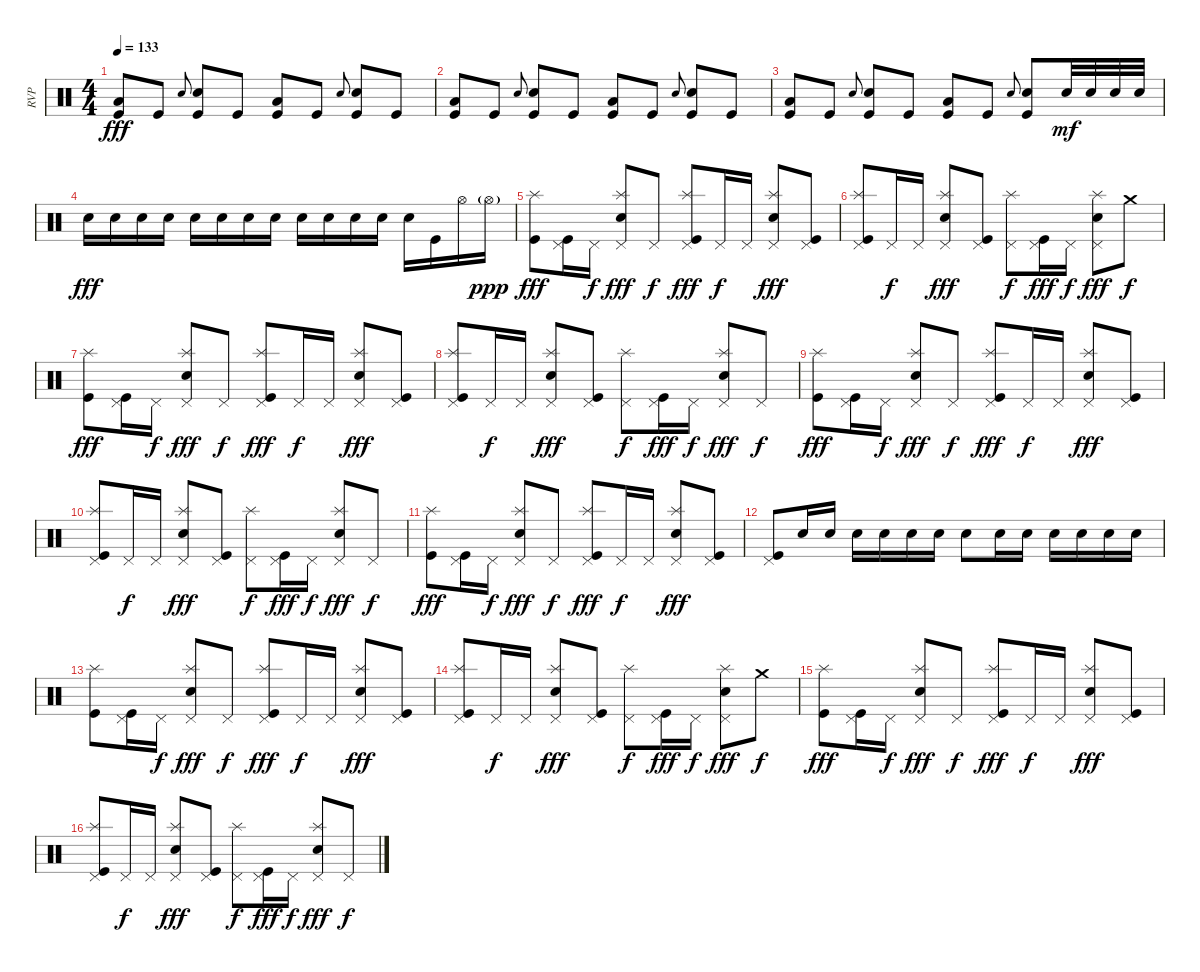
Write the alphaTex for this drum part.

\track ("RVP" "RVP") {instrument percussion}
\staff {score}
\articulation defaults
\ts (4 4)
\tempo 133
\clef neutral
\ks c
("Low Floor Tom (hit)" "Kick (hit)").8{txt "" dy fff} "Kick (hit)".8{txt ""} "Snare (hit) 2".8{gr onbeat} ("Snare (hit) 2" "Kick (hit)").8{txt ""} "Kick (hit)".8{txt ""} ("Low Floor Tom (hit)" "Kick (hit)").8{txt ""} "Kick (hit)".8{txt ""} "Snare (hit) 2".8{gr onbeat} ("Snare (hit) 2" "Kick (hit)").8{txt ""} "Kick (hit)".8{txt ""} |
("Low Floor Tom (hit)" "Kick (hit)").8{txt ""} "Kick (hit)".8{txt ""} "Snare (hit) 2".8{gr onbeat} ("Snare (hit) 2" "Kick (hit)").8{txt ""} "Kick (hit)".8{txt ""} ("Low Floor Tom (hit)" "Kick (hit)").8{txt ""} "Kick (hit)".8{txt ""} "Snare (hit) 2".8{gr onbeat} ("Snare (hit) 2" "Kick (hit)").8{txt ""} "Kick (hit)".8{txt ""} |
("Low Floor Tom (hit)" "Kick (hit)").8{txt ""} "Kick (hit)".8{txt ""} "Snare (hit) 2".8{gr onbeat} ("Snare (hit) 2" "Kick (hit)").8{txt ""} "Kick (hit)".8{txt ""} ("Low Floor Tom (hit)" "Kick (hit)").8{txt ""} "Kick (hit)".8{txt ""} "Snare (hit) 2".8{gr onbeat} ("Snare (hit) 2" "Kick (hit)").8{txt ""} "Snare (hit) 2".32{txt "" dy mf} "Snare (hit) 2".32{txt ""} "Snare (hit) 2".32{txt ""} "Snare (hit) 2".32{txt ""} |
"Snare (hit) 2".16{txt "" dy fff} "Snare (hit) 2".16{txt ""} "Snare (hit) 2".16{txt ""} "Snare (hit) 2".16{txt ""} "Snare (hit) 2".16{txt ""} "Snare (hit) 2".16{txt ""} "Snare (hit) 2".16{txt ""} "Snare (hit) 2".16{txt ""} "Snare (hit) 2".16{txt ""} "Snare (hit) 2".16{txt ""} "Snare (hit) 2".16{txt ""} "Snare (hit) 2".16{txt ""} "Snare (hit) 2".16{txt ""} "Kick (hit)".16{txt ""} "Hi-Hat (open)".16{txt ""} "Hi-Hat (open)"{g}.16{txt "" dy ppp} |
("Splash (hit)" "Kick (hit)").8{txt "" dy fff} ("Pedal Hi-Hat (hit)" "Kick (hit)").16{txt ""} "Pedal Hi-Hat (hit)".16{txt "" dy f} ("Snare (hit) 2" "Pedal Hi-Hat (hit)" "Splash (hit)").8{txt "" dy fff} "Pedal Hi-Hat (hit)".8{txt "" dy f} ("Pedal Hi-Hat (hit)" "Splash (hit)" "Kick (hit)").8{txt "" dy fff} "Pedal Hi-Hat (hit)".16{txt "" dy f} "Pedal Hi-Hat (hit)".16{txt ""} ("Snare (hit) 2" "Pedal Hi-Hat (hit)" "Splash (hit)").8{txt "" dy fff} ("Pedal Hi-Hat (hit)" "Kick (hit)").8{txt ""} |
("Pedal Hi-Hat (hit)" "Splash (hit)" "Kick (hit)").8{txt ""} "Pedal Hi-Hat (hit)".16{txt "" dy f} "Pedal Hi-Hat (hit)".16{txt ""} ("Snare (hit) 2" "Pedal Hi-Hat (hit)" "Splash (hit)").8{txt "" dy fff} ("Pedal Hi-Hat (hit)" "Kick (hit)").8{txt ""} ("Pedal Hi-Hat (hit)" "Splash (hit)").8{txt "" dy f} ("Pedal Hi-Hat (hit)" "Kick (hit)").16{txt "" dy fff} "Pedal Hi-Hat (hit)".16{txt "" dy f} ("Snare (hit) 2" "Pedal Hi-Hat (hit)" "Splash (hit)").8{txt "" dy fff} "Crash medium (hit)".8{txt "" dy f} |
("Splash (hit)" "Kick (hit)").8{txt "" dy fff} ("Pedal Hi-Hat (hit)" "Kick (hit)").16{txt ""} "Pedal Hi-Hat (hit)".16{txt "" dy f} ("Snare (hit) 2" "Pedal Hi-Hat (hit)" "Splash (hit)").8{txt "" dy fff} "Pedal Hi-Hat (hit)".8{txt "" dy f} ("Pedal Hi-Hat (hit)" "Splash (hit)" "Kick (hit)").8{txt "" dy fff} "Pedal Hi-Hat (hit)".16{txt "" dy f} "Pedal Hi-Hat (hit)".16{txt ""} ("Snare (hit) 2" "Pedal Hi-Hat (hit)" "Splash (hit)").8{txt "" dy fff} ("Pedal Hi-Hat (hit)" "Kick (hit)").8{txt ""} |
("Pedal Hi-Hat (hit)" "Splash (hit)" "Kick (hit)").8{txt ""} "Pedal Hi-Hat (hit)".16{txt "" dy f} "Pedal Hi-Hat (hit)".16{txt ""} ("Snare (hit) 2" "Pedal Hi-Hat (hit)" "Splash (hit)").8{txt "" dy fff} ("Pedal Hi-Hat (hit)" "Kick (hit)").8{txt ""} ("Pedal Hi-Hat (hit)" "Splash (hit)").8{txt "" dy f} ("Pedal Hi-Hat (hit)" "Kick (hit)").16{txt "" dy fff} "Pedal Hi-Hat (hit)".16{txt "" dy f} ("Snare (hit) 2" "Pedal Hi-Hat (hit)" "Splash (hit)").8{txt "" dy fff} "Pedal Hi-Hat (hit)".8{txt "" dy f} |
("Splash (hit)" "Kick (hit)").8{txt "" dy fff} ("Pedal Hi-Hat (hit)" "Kick (hit)").16{txt ""} "Pedal Hi-Hat (hit)".16{txt "" dy f} ("Snare (hit) 2" "Pedal Hi-Hat (hit)" "Splash (hit)").8{txt "" dy fff} "Pedal Hi-Hat (hit)".8{txt "" dy f} ("Pedal Hi-Hat (hit)" "Splash (hit)" "Kick (hit)").8{txt "" dy fff} "Pedal Hi-Hat (hit)".16{txt "" dy f} "Pedal Hi-Hat (hit)".16{txt ""} ("Snare (hit) 2" "Pedal Hi-Hat (hit)" "Splash (hit)").8{txt "" dy fff} ("Pedal Hi-Hat (hit)" "Kick (hit)").8{txt ""} |
("Pedal Hi-Hat (hit)" "Splash (hit)" "Kick (hit)").8{txt ""} "Pedal Hi-Hat (hit)".16{txt "" dy f} "Pedal Hi-Hat (hit)".16{txt ""} ("Snare (hit) 2" "Pedal Hi-Hat (hit)" "Splash (hit)").8{txt "" dy fff} ("Pedal Hi-Hat (hit)" "Kick (hit)").8{txt ""} ("Pedal Hi-Hat (hit)" "Splash (hit)").8{txt "" dy f} ("Pedal Hi-Hat (hit)" "Kick (hit)").16{txt "" dy fff} "Pedal Hi-Hat (hit)".16{txt "" dy f} ("Snare (hit) 2" "Pedal Hi-Hat (hit)" "Splash (hit)").8{txt "" dy fff} "Pedal Hi-Hat (hit)".8{txt "" dy f} |
("Splash (hit)" "Kick (hit)").8{txt "" dy fff} ("Pedal Hi-Hat (hit)" "Kick (hit)").16{txt ""} "Pedal Hi-Hat (hit)".16{txt "" dy f} ("Snare (hit) 2" "Pedal Hi-Hat (hit)" "Splash (hit)").8{txt "" dy fff} "Pedal Hi-Hat (hit)".8{txt "" dy f} ("Pedal Hi-Hat (hit)" "Splash (hit)" "Kick (hit)").8{txt "" dy fff} "Pedal Hi-Hat (hit)".16{txt "" dy f} "Pedal Hi-Hat (hit)".16{txt ""} ("Snare (hit) 2" "Pedal Hi-Hat (hit)" "Splash (hit)").8{txt "" dy fff} ("Pedal Hi-Hat (hit)" "Kick (hit)").8{txt ""} |
("Pedal Hi-Hat (hit)" "Kick (hit)").8{txt ""} "Snare (hit) 2".16{txt ""} "Snare (hit) 2".16{txt ""} "Snare (hit) 2".16{txt ""} "Snare (hit) 2".16{txt ""} "Snare (hit) 2".16{txt ""} "Snare (hit) 2".16{txt ""} "Snare (hit) 2".8{txt ""} "Snare (hit) 2".16{txt ""} "Snare (hit) 2".16{txt ""} "Snare (hit) 2".16{txt ""} "Snare (hit) 2".16{txt ""} "Snare (hit) 2".16{txt ""} "Snare (hit) 2".16{txt ""} |
("Splash (hit)" "Kick (hit)").8{txt ""} ("Pedal Hi-Hat (hit)" "Kick (hit)").16{txt ""} "Pedal Hi-Hat (hit)".16{txt "" dy f} ("Snare (hit) 2" "Pedal Hi-Hat (hit)" "Splash (hit)").8{txt "" dy fff} "Pedal Hi-Hat (hit)".8{txt "" dy f} ("Pedal Hi-Hat (hit)" "Splash (hit)" "Kick (hit)").8{txt "" dy fff} "Pedal Hi-Hat (hit)".16{txt "" dy f} "Pedal Hi-Hat (hit)".16{txt ""} ("Snare (hit) 2" "Pedal Hi-Hat (hit)" "Splash (hit)").8{txt "" dy fff} ("Pedal Hi-Hat (hit)" "Kick (hit)").8{txt ""} |
("Pedal Hi-Hat (hit)" "Splash (hit)" "Kick (hit)").8{txt ""} "Pedal Hi-Hat (hit)".16{txt "" dy f} "Pedal Hi-Hat (hit)".16{txt ""} ("Snare (hit) 2" "Pedal Hi-Hat (hit)" "Splash (hit)").8{txt "" dy fff} ("Pedal Hi-Hat (hit)" "Kick (hit)").8{txt ""} ("Pedal Hi-Hat (hit)" "Splash (hit)").8{txt "" dy f} ("Pedal Hi-Hat (hit)" "Kick (hit)").16{txt "" dy fff} "Pedal Hi-Hat (hit)".16{txt "" dy f} ("Snare (hit) 2" "Pedal Hi-Hat (hit)" "Splash (hit)").8{txt "" dy fff} "Crash medium (hit)".8{txt "" dy f} |
("Splash (hit)" "Kick (hit)").8{txt "" dy fff} ("Pedal Hi-Hat (hit)" "Kick (hit)").16{txt ""} "Pedal Hi-Hat (hit)".16{txt "" dy f} ("Snare (hit) 2" "Pedal Hi-Hat (hit)" "Splash (hit)").8{txt "" dy fff} "Pedal Hi-Hat (hit)".8{txt "" dy f} ("Pedal Hi-Hat (hit)" "Splash (hit)" "Kick (hit)").8{txt "" dy fff} "Pedal Hi-Hat (hit)".16{txt "" dy f} "Pedal Hi-Hat (hit)".16{txt ""} ("Snare (hit) 2" "Pedal Hi-Hat (hit)" "Splash (hit)").8{txt "" dy fff} ("Pedal Hi-Hat (hit)" "Kick (hit)").8{txt ""} |
("Pedal Hi-Hat (hit)" "Splash (hit)" "Kick (hit)").8{txt ""} "Pedal Hi-Hat (hit)".16{txt "" dy f} "Pedal Hi-Hat (hit)".16{txt ""} ("Snare (hit) 2" "Pedal Hi-Hat (hit)" "Splash (hit)").8{txt "" dy fff} ("Pedal Hi-Hat (hit)" "Kick (hit)").8{txt ""} ("Pedal Hi-Hat (hit)" "Splash (hit)").8{txt "" dy f} ("Pedal Hi-Hat (hit)" "Kick (hit)").16{txt "" dy fff} "Pedal Hi-Hat (hit)".16{txt "" dy f} ("Snare (hit) 2" "Pedal Hi-Hat (hit)" "Splash (hit)").8{txt "" dy fff} "Pedal Hi-Hat (hit)".8{txt "" dy f}
